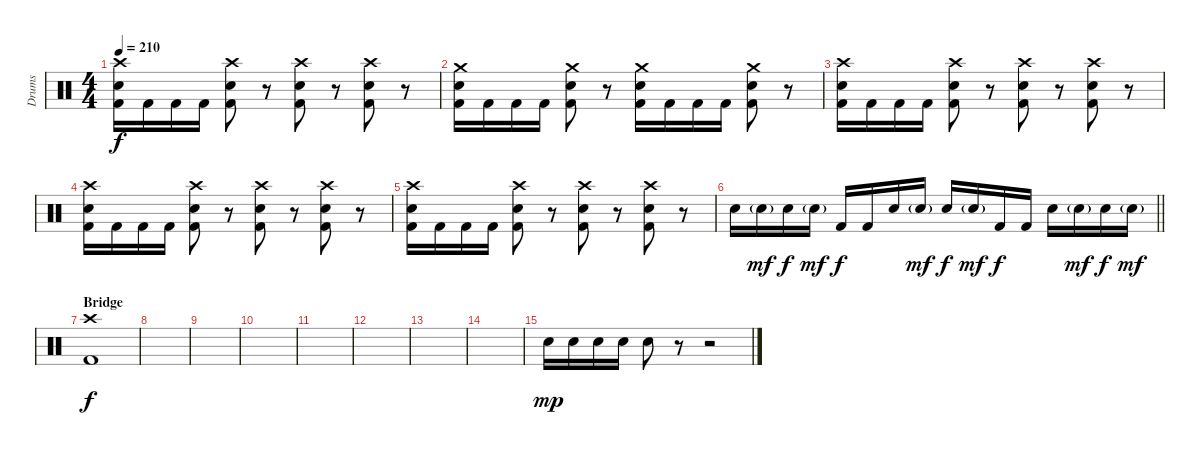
\track ("Drums" "Drums") {instrument percussion}
\staff {score}
\articulation defaults
\ts (4 4)
\tempo 210
\clef neutral
\ks c
("Crash high (hit)" "Electric Snare (hit)" "Kick (hit) 2").16{dy f} "Kick (hit) 2".16 "Kick (hit) 2".16 "Kick (hit) 2".16 ("Crash high (hit)" "Electric Snare (hit)" "Kick (hit) 2").8 r.8 ("Crash high (hit)" "Electric Snare (hit)" "Kick (hit) 2").8 r.8 ("Crash high (hit)" "Electric Snare (hit)" "Kick (hit) 2").8 r.8 |
("Crash medium (hit)" "Electric Snare (hit)" "Kick (hit) 2").16 "Kick (hit) 2".16 "Kick (hit) 2".16 "Kick (hit) 2".16 ("Crash medium (hit)" "Electric Snare (hit)" "Kick (hit) 2").8 r.8 ("Crash medium (hit)" "Electric Snare (hit)" "Kick (hit) 2").16 "Kick (hit) 2".16 "Kick (hit) 2".16 "Kick (hit) 2".16 ("Crash medium (hit)" "Electric Snare (hit)" "Kick (hit) 2").8 r.8 |
("Crash high (hit)" "Electric Snare (hit)" "Kick (hit) 2").16 "Kick (hit) 2".16 "Kick (hit) 2".16 "Kick (hit) 2".16 ("Crash high (hit)" "Electric Snare (hit)" "Kick (hit) 2").8 r.8 ("Crash high (hit)" "Electric Snare (hit)" "Kick (hit) 2").8 r.8 ("Crash high (hit)" "Electric Snare (hit)" "Kick (hit) 2").8 r.8 |
("Crash high (hit)" "Electric Snare (hit)" "Kick (hit) 2").16 "Kick (hit) 2".16 "Kick (hit) 2".16 "Kick (hit) 2".16 ("Crash high (hit)" "Electric Snare (hit)" "Kick (hit) 2").8 r.8 ("Crash high (hit)" "Electric Snare (hit)" "Kick (hit) 2").8 r.8 ("Crash high (hit)" "Electric Snare (hit)" "Kick (hit) 2").8 r.8 |
("Crash high (hit)" "Electric Snare (hit)" "Kick (hit) 2").16 "Kick (hit) 2".16 "Kick (hit) 2".16 "Kick (hit) 2".16 ("Crash high (hit)" "Electric Snare (hit)" "Kick (hit) 2").8 r.8 ("Crash high (hit)" "Electric Snare (hit)" "Kick (hit) 2").8 r.8 ("Crash high (hit)" "Electric Snare (hit)" "Kick (hit) 2").8 r.8 |
\barLineRight lightlight "Electric Snare (hit)".16 "Electric Snare (hit)"{g}.16{dy mf} "Electric Snare (hit)".16{dy f} "Electric Snare (hit)"{g}.16{dy mf} "Kick (hit) 2".16{dy f} "Kick (hit) 2".16 "Electric Snare (hit)".16 "Electric Snare (hit)"{g}.16{dy mf} "Electric Snare (hit)".16{dy f} "Electric Snare (hit)"{g}.16{dy mf} "Kick (hit) 2".16{dy f} "Kick (hit) 2".16 "Electric Snare (hit)".16 "Electric Snare (hit)"{g}.16{dy mf} "Electric Snare (hit)".16{dy f} "Electric Snare (hit)"{g}.16{dy mf}
|
\section ("" "Bridge")
("Crash high (hit)" "Kick (hit) 2").1{dy f} |
|
|
|
|
|
|
|
"Electric Snare (hit)".16{dy mp} "Electric Snare (hit)".16 "Electric Snare (hit)".16 "Electric Snare (hit)".16 "Electric Snare (hit)".8 r.8 r.2
